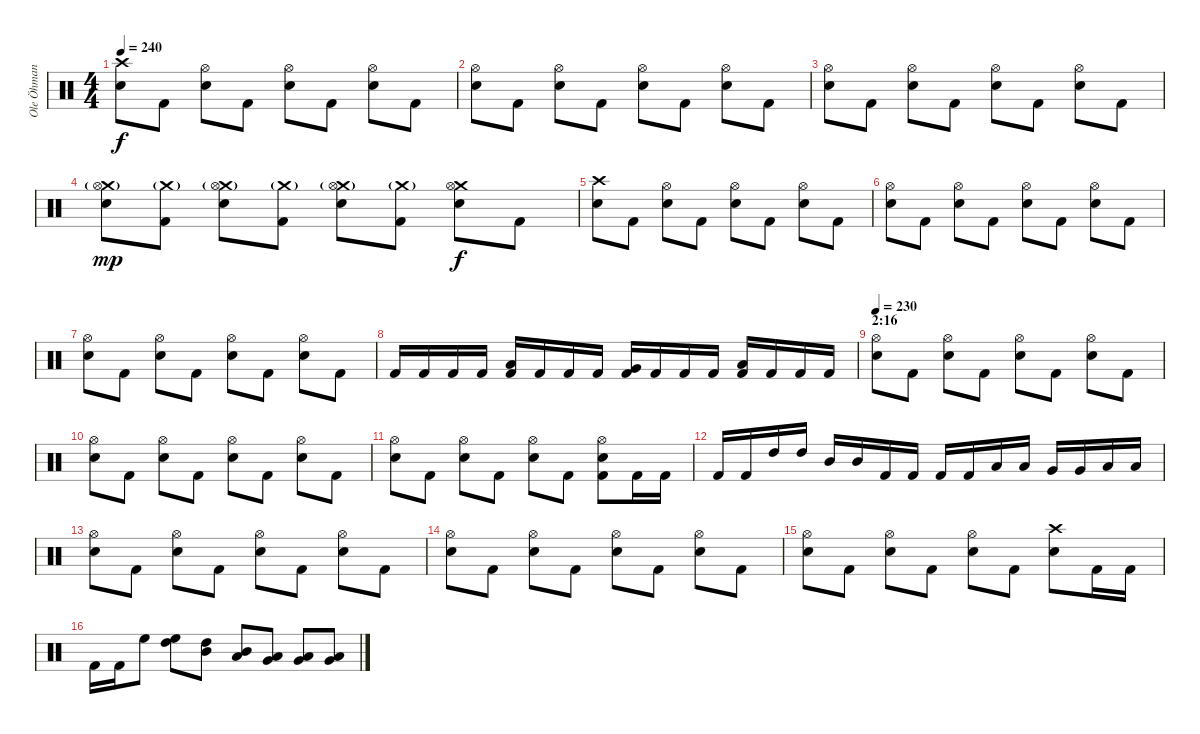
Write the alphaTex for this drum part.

\track ("Ole Öhman" "Ole Öhman") {instrument percussion}
\staff {score}
\articulation defaults
\ts (4 4)
\tempo 240
\clef neutral
\ks c
("Crash high (hit)" "Electric Snare (hit)").8{dy f} "Kick (hit) 2".8 ("Hi-Hat (open)" "Electric Snare (hit)").8 "Kick (hit) 2".8 ("Hi-Hat (open)" "Electric Snare (hit)").8 "Kick (hit) 2".8 ("Hi-Hat (open)" "Electric Snare (hit)").8 "Kick (hit) 2".8 |
("Hi-Hat (open)" "Electric Snare (hit)").8 "Kick (hit) 2".8 ("Hi-Hat (open)" "Electric Snare (hit)").8 "Kick (hit) 2".8 ("Hi-Hat (open)" "Electric Snare (hit)").8 "Kick (hit) 2".8 ("Hi-Hat (open)" "Electric Snare (hit)").8 "Kick (hit) 2".8 |
("Hi-Hat (open)" "Electric Snare (hit)").8 "Kick (hit) 2".8 ("Hi-Hat (open)" "Electric Snare (hit)").8 "Kick (hit) 2".8 ("Hi-Hat (open)" "Electric Snare (hit)").8 "Kick (hit) 2".8 ("Hi-Hat (open)" "Electric Snare (hit)").8 "Kick (hit) 2".8 |
("Crash medium (hit)"{g} "Hi-Hat (open)" "Electric Snare (hit)").8{dy mp} ("Crash medium (hit)"{g} "Kick (hit) 2").8 ("Crash medium (hit)"{g} "Hi-Hat (open)" "Electric Snare (hit)").8 ("Crash medium (hit)"{g} "Kick (hit) 2").8 ("Crash medium (hit)"{g} "Hi-Hat (open)" "Electric Snare (hit)").8 ("Crash medium (hit)"{g} "Kick (hit) 2").8 ("Crash medium (hit)" "Hi-Hat (open)" "Electric Snare (hit)").8{dy f} "Kick (hit) 2".8 |
("Crash high (hit)" "Electric Snare (hit)").8 "Kick (hit) 2".8 ("Hi-Hat (open)" "Electric Snare (hit)").8 "Kick (hit) 2".8 ("Hi-Hat (open)" "Electric Snare (hit)").8 "Kick (hit) 2".8 ("Hi-Hat (open)" "Electric Snare (hit)").8 "Kick (hit) 2".8 |
("Hi-Hat (open)" "Electric Snare (hit)").8 "Kick (hit) 2".8 ("Hi-Hat (open)" "Electric Snare (hit)").8 "Kick (hit) 2".8 ("Hi-Hat (open)" "Electric Snare (hit)").8 "Kick (hit) 2".8 ("Hi-Hat (open)" "Electric Snare (hit)").8 "Kick (hit) 2".8 |
("Hi-Hat (open)" "Electric Snare (hit)").8 "Kick (hit) 2".8 ("Hi-Hat (open)" "Electric Snare (hit)").8 "Kick (hit) 2".8 ("Hi-Hat (open)" "Electric Snare (hit)").8 "Kick (hit) 2".8 ("Hi-Hat (open)" "Electric Snare (hit)").8 "Kick (hit) 2".8 |
"Kick (hit) 2".16 "Kick (hit) 2".16 "Kick (hit) 2".16 "Kick (hit) 2".16 ("Low Tom (hit)" "Kick (hit) 2").16 "Kick (hit) 2".16 "Kick (hit) 2".16 "Kick (hit) 2".16 ("Very Low Tom (hit)" "Kick (hit) 2").16 "Kick (hit) 2".16 "Kick (hit) 2".16 "Kick (hit) 2".16 ("Low Floor Tom (hit)" "Kick (hit) 2").16 "Kick (hit) 2".16 "Kick (hit) 2".16 "Kick (hit) 2".16 |
\section ("" "2:16")
\tempo 230
("Hi-Hat (open)" "Electric Snare (hit)").8 "Kick (hit) 2".8 ("Hi-Hat (open)" "Electric Snare (hit)").8 "Kick (hit) 2".8 ("Hi-Hat (open)" "Electric Snare (hit)").8 "Kick (hit) 2".8 ("Hi-Hat (open)" "Electric Snare (hit)").8 "Kick (hit) 2".8 |
("Hi-Hat (open)" "Electric Snare (hit)").8 "Kick (hit) 2".8 ("Hi-Hat (open)" "Electric Snare (hit)").8 "Kick (hit) 2".8 ("Hi-Hat (open)" "Electric Snare (hit)").8 "Kick (hit) 2".8 ("Hi-Hat (open)" "Electric Snare (hit)").8 "Kick (hit) 2".8 |
("Hi-Hat (open)" "Electric Snare (hit)").8 "Kick (hit) 2".8 ("Hi-Hat (open)" "Electric Snare (hit)").8 "Kick (hit) 2".8 ("Hi-Hat (open)" "Electric Snare (hit)").8 "Kick (hit) 2".8 ("Hi-Hat (open)" "Electric Snare (hit)" "Kick (hit) 2").8 "Kick (hit) 2".16 "Kick (hit) 2".16 |
"Kick (hit) 2".16 "Kick (hit) 2".16 "High Tom (hit)".16 "High Tom (hit)".16 "Mid Tom (hit)".16 "Mid Tom (hit)".16 "Kick (hit) 2".16 "Kick (hit) 2".16 "Kick (hit) 2".16 "Kick (hit) 2".16 "Low Tom (hit)".16 "Low Tom (hit)".16 "Very Low Tom (hit)".16 "Very Low Tom (hit)".16 "Low Floor Tom (hit)".16 "Low Floor Tom (hit)".16 |
("Hi-Hat (open)" "Electric Snare (hit)").8 "Kick (hit) 2".8 ("Hi-Hat (open)" "Electric Snare (hit)").8 "Kick (hit) 2".8 ("Hi-Hat (open)" "Electric Snare (hit)").8 "Kick (hit) 2".8 ("Hi-Hat (open)" "Electric Snare (hit)").8 "Kick (hit) 2".8 |
("Hi-Hat (open)" "Electric Snare (hit)").8 "Kick (hit) 2".8 ("Hi-Hat (open)" "Electric Snare (hit)").8 "Kick (hit) 2".8 ("Hi-Hat (open)" "Electric Snare (hit)").8 "Kick (hit) 2".8 ("Hi-Hat (open)" "Electric Snare (hit)").8 "Kick (hit) 2".8 |
("Hi-Hat (open)" "Electric Snare (hit)").8 "Kick (hit) 2".8 ("Hi-Hat (open)" "Electric Snare (hit)").8 "Kick (hit) 2".8 ("Hi-Hat (open)" "Electric Snare (hit)").8 "Kick (hit) 2".8 ("Crash high (hit)" "Electric Snare (hit)").8 "Kick (hit) 2".16 "Kick (hit) 2".16 |
"Kick (hit) 2".16 "Kick (hit) 2".16 "High Floor Tom (hit)".8 ("High Floor Tom (hit)" "High Tom (hit)").8 ("High Tom (hit)" "Mid Tom (hit)").8 ("Mid Tom (hit)" "Low Tom (hit)").8 ("Low Tom (hit)" "Very Low Tom (hit)").8 ("Very Low Tom (hit)" "Low Floor Tom (hit)").8 ("Very Low Tom (hit)" "Low Floor Tom (hit)").8
